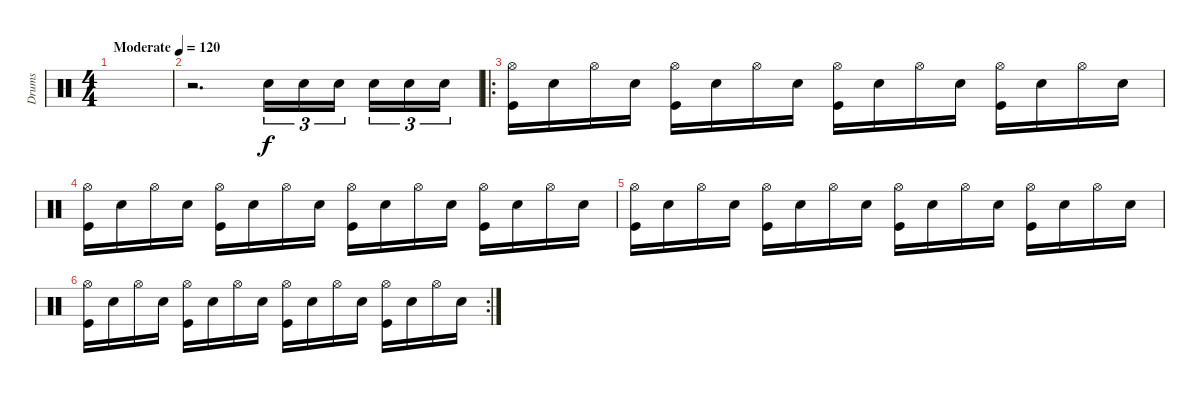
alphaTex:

\track ("Drums" "Drums") {instrument percussion}
\staff {score}
\articulation defaults
\ts (4 4)
\tempo (120 "Moderate")
\clef neutral
\ks c
|
r.2{d} "Snare (hit) 2".16{tu (3 2)} "Snare (hit) 2".16{tu (3 2)} "Snare (hit) 2".16{tu (3 2) beam splitsecondary} "Snare (hit) 2".16{tu (3 2)} "Snare (hit) 2".16{tu (3 2)} "Snare (hit) 2".16{tu (3 2)} |
\ro
("Hi-Hat (open)" "Kick (hit)").16 "Snare (hit) 2".16 "Hi-Hat (open)".16 "Snare (hit) 2".16 ("Hi-Hat (open)" "Kick (hit)").16 "Snare (hit) 2".16 "Hi-Hat (open)".16 "Snare (hit) 2".16 ("Hi-Hat (open)" "Kick (hit)").16 "Snare (hit) 2".16 "Hi-Hat (open)".16 "Snare (hit) 2".16 ("Hi-Hat (open)" "Kick (hit)").16 "Snare (hit) 2".16 "Hi-Hat (open)".16 "Snare (hit) 2".16 |
("Hi-Hat (open)" "Kick (hit)").16 "Snare (hit) 2".16 "Hi-Hat (open)".16 "Snare (hit) 2".16 ("Hi-Hat (open)" "Kick (hit)").16 "Snare (hit) 2".16 "Hi-Hat (open)".16 "Snare (hit) 2".16 ("Hi-Hat (open)" "Kick (hit)").16 "Snare (hit) 2".16 "Hi-Hat (open)".16 "Snare (hit) 2".16 ("Hi-Hat (open)" "Kick (hit)").16 "Snare (hit) 2".16 "Hi-Hat (open)".16 "Snare (hit) 2".16 |
("Hi-Hat (open)" "Kick (hit)").16 "Snare (hit) 2".16 "Hi-Hat (open)".16 "Snare (hit) 2".16 ("Hi-Hat (open)" "Kick (hit)").16 "Snare (hit) 2".16 "Hi-Hat (open)".16 "Snare (hit) 2".16 ("Hi-Hat (open)" "Kick (hit)").16 "Snare (hit) 2".16 "Hi-Hat (open)".16 "Snare (hit) 2".16 ("Hi-Hat (open)" "Kick (hit)").16 "Snare (hit) 2".16 "Hi-Hat (open)".16 "Snare (hit) 2".16 |
\rc 2
("Hi-Hat (open)" "Kick (hit)").16 "Snare (hit) 2".16 "Hi-Hat (open)".16 "Snare (hit) 2".16 ("Hi-Hat (open)" "Kick (hit)").16 "Snare (hit) 2".16 "Hi-Hat (open)".16 "Snare (hit) 2".16 ("Hi-Hat (open)" "Kick (hit)").16 "Snare (hit) 2".16 "Hi-Hat (open)".16 "Snare (hit) 2".16 ("Hi-Hat (open)" "Kick (hit)").16 "Snare (hit) 2".16 "Hi-Hat (open)".16 "Snare (hit) 2".16
